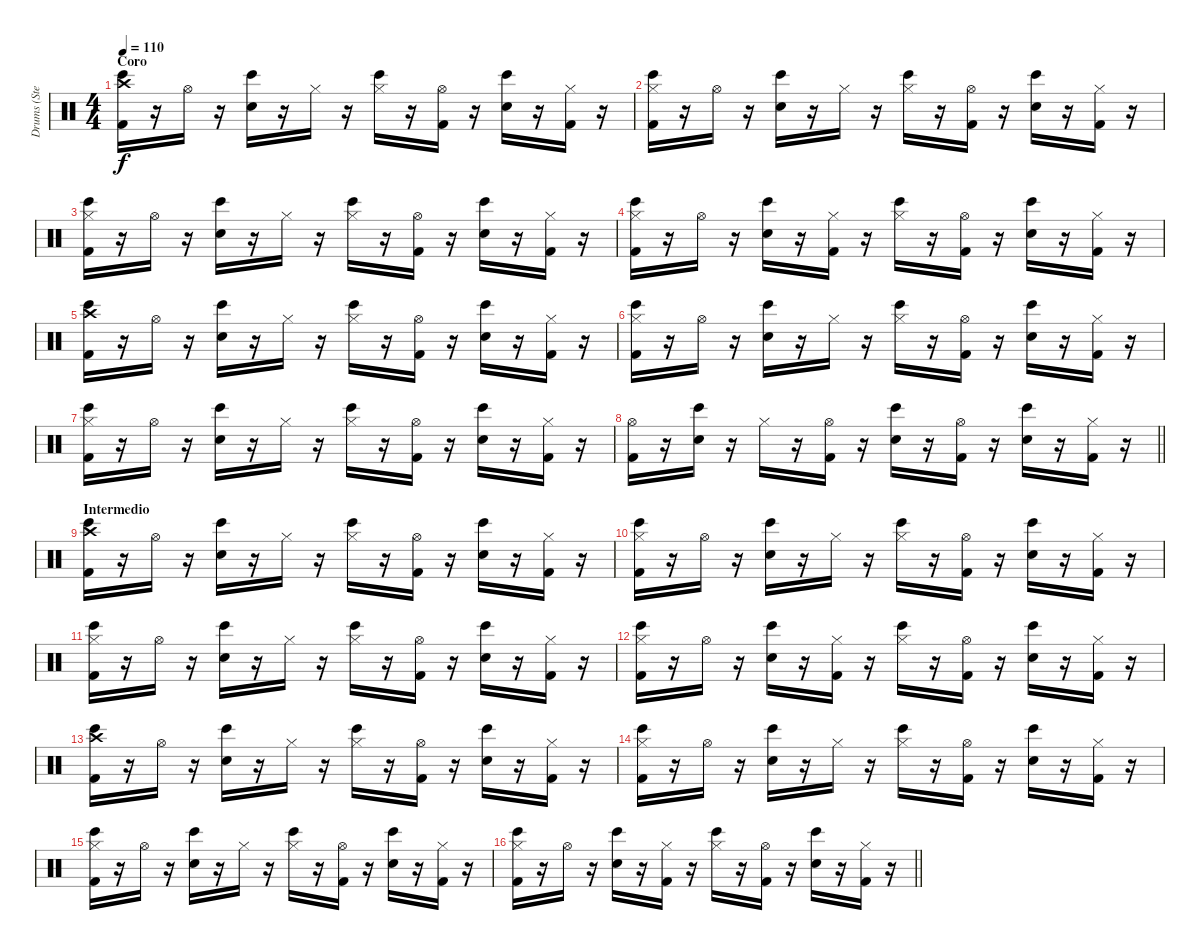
\track ("Drums (Stephen Perkins)" "Drums (Ste") {instrument percussion}
\staff {score}
\articulation defaults
\ts (4 4)
\section ("" "Coro")
\tempo 110
\clef neutral
\ks c
("Crash high (hit)" "Bongo High (hit)" "Kick (hit) 2").16{dy f} r.16 "Hi-Hat (open)".16 r.16 ("Bongo High (hit)" "Snare (hit) 2").16 r.16 "Hi-Hat (closed)".16 r.16 ("Hi-Hat (closed)" "Bongo High (hit)").16 r.16 ("Hi-Hat (open)" "Kick (hit) 2").16 r.16 ("Bongo High (hit)" "Snare (hit) 2").16 r.16 ("Hi-Hat (closed)" "Kick (hit) 2").16 r.16 |
("Hi-Hat (closed)" "Bongo High (hit)" "Kick (hit) 2").16 r.16 "Hi-Hat (open)".16 r.16 ("Bongo High (hit)" "Snare (hit) 2").16 r.16 "Hi-Hat (closed)".16 r.16 ("Hi-Hat (closed)" "Bongo High (hit)").16 r.16 ("Hi-Hat (open)" "Kick (hit) 2").16 r.16 ("Bongo High (hit)" "Snare (hit) 2").16 r.16 ("Hi-Hat (closed)" "Kick (hit) 2").16 r.16 |
("Hi-Hat (closed)" "Bongo High (hit)" "Kick (hit) 2").16 r.16 "Hi-Hat (open)".16 r.16 ("Bongo High (hit)" "Snare (hit) 2").16 r.16 "Hi-Hat (closed)".16 r.16 ("Hi-Hat (closed)" "Bongo High (hit)").16 r.16 ("Hi-Hat (open)" "Kick (hit) 2").16 r.16 ("Bongo High (hit)" "Snare (hit) 2").16 r.16 ("Hi-Hat (closed)" "Kick (hit) 2").16 r.16 |
("Hi-Hat (closed)" "Bongo High (hit)" "Kick (hit) 2").16 r.16 "Hi-Hat (open)".16 r.16 ("Bongo High (hit)" "Snare (hit) 2").16 r.16 ("Hi-Hat (closed)" "Kick (hit) 2").16 r.16 ("Hi-Hat (closed)" "Bongo High (hit)").16 r.16 ("Hi-Hat (open)" "Kick (hit) 2").16 r.16 ("Bongo High (hit)" "Snare (hit) 2").16 r.16 ("Hi-Hat (closed)" "Kick (hit) 2").16 r.16 |
("Crash high (hit)" "Bongo High (hit)" "Kick (hit) 2").16 r.16 "Hi-Hat (open)".16 r.16 ("Bongo High (hit)" "Snare (hit) 2").16 r.16 "Hi-Hat (closed)".16 r.16 ("Hi-Hat (closed)" "Bongo High (hit)").16 r.16 ("Hi-Hat (open)" "Kick (hit) 2").16 r.16 ("Bongo High (hit)" "Snare (hit) 2").16 r.16 ("Hi-Hat (closed)" "Kick (hit) 2").16 r.16 |
("Hi-Hat (closed)" "Bongo High (hit)" "Kick (hit) 2").16 r.16 "Hi-Hat (open)".16 r.16 ("Bongo High (hit)" "Snare (hit) 2").16 r.16 "Hi-Hat (closed)".16 r.16 ("Hi-Hat (closed)" "Bongo High (hit)").16 r.16 ("Hi-Hat (open)" "Kick (hit) 2").16 r.16 ("Bongo High (hit)" "Snare (hit) 2").16 r.16 ("Hi-Hat (closed)" "Kick (hit) 2").16 r.16 |
("Hi-Hat (closed)" "Bongo High (hit)" "Kick (hit) 2").16 r.16 "Hi-Hat (open)".16 r.16 ("Bongo High (hit)" "Snare (hit) 2").16 r.16 "Hi-Hat (closed)".16 r.16 ("Hi-Hat (closed)" "Bongo High (hit)").16 r.16 ("Hi-Hat (open)" "Kick (hit) 2").16 r.16 ("Bongo High (hit)" "Snare (hit) 2").16 r.16 ("Hi-Hat (closed)" "Kick (hit) 2").16 r.16 |
\barLineRight lightlight
("Hi-Hat (open)" "Kick (hit) 2").16 r.16 ("Bongo High (hit)" "Snare (hit) 2").16 r.16 "Hi-Hat (closed)".16 r.16 ("Hi-Hat (open)" "Kick (hit) 2").16 r.16 ("Bongo High (hit)" "Snare (hit) 2").16 r.16 ("Hi-Hat (open)" "Kick (hit) 2").16 r.16 ("Bongo High (hit)" "Snare (hit) 2").16 r.16 ("Hi-Hat (closed)" "Kick (hit) 2").16 r.16 |
\section ("" "Intermedio")
("Crash high (hit)" "Bongo High (hit)" "Kick (hit) 2").16 r.16 "Hi-Hat (open)".16 r.16 ("Bongo High (hit)" "Snare (hit) 2").16 r.16 "Hi-Hat (closed)".16 r.16 ("Hi-Hat (closed)" "Bongo High (hit)").16 r.16 ("Hi-Hat (open)" "Kick (hit) 2").16 r.16 ("Bongo High (hit)" "Snare (hit) 2").16 r.16 ("Hi-Hat (closed)" "Kick (hit) 2").16 r.16 |
("Hi-Hat (closed)" "Bongo High (hit)" "Kick (hit) 2").16 r.16 "Hi-Hat (open)".16 r.16 ("Bongo High (hit)" "Snare (hit) 2").16 r.16 "Hi-Hat (closed)".16 r.16 ("Hi-Hat (closed)" "Bongo High (hit)").16 r.16 ("Hi-Hat (open)" "Kick (hit) 2").16 r.16 ("Bongo High (hit)" "Snare (hit) 2").16 r.16 ("Hi-Hat (closed)" "Kick (hit) 2").16 r.16 |
("Hi-Hat (closed)" "Bongo High (hit)" "Kick (hit) 2").16 r.16 "Hi-Hat (open)".16 r.16 ("Bongo High (hit)" "Snare (hit) 2").16 r.16 "Hi-Hat (closed)".16 r.16 ("Hi-Hat (closed)" "Bongo High (hit)").16 r.16 ("Hi-Hat (open)" "Kick (hit) 2").16 r.16 ("Bongo High (hit)" "Snare (hit) 2").16 r.16 ("Hi-Hat (closed)" "Kick (hit) 2").16 r.16 |
("Hi-Hat (closed)" "Bongo High (hit)" "Kick (hit) 2").16 r.16 "Hi-Hat (open)".16 r.16 ("Bongo High (hit)" "Snare (hit) 2").16 r.16 ("Hi-Hat (closed)" "Kick (hit) 2").16 r.16 ("Hi-Hat (closed)" "Bongo High (hit)").16 r.16 ("Hi-Hat (open)" "Kick (hit) 2").16 r.16 ("Bongo High (hit)" "Snare (hit) 2").16 r.16 ("Hi-Hat (closed)" "Kick (hit) 2").16 r.16 |
("Crash high (hit)" "Bongo High (hit)" "Kick (hit) 2").16 r.16 "Hi-Hat (open)".16 r.16 ("Bongo High (hit)" "Snare (hit) 2").16 r.16 "Hi-Hat (closed)".16 r.16 ("Hi-Hat (closed)" "Bongo High (hit)").16 r.16 ("Hi-Hat (open)" "Kick (hit) 2").16 r.16 ("Bongo High (hit)" "Snare (hit) 2").16 r.16 ("Hi-Hat (closed)" "Kick (hit) 2").16 r.16 |
("Hi-Hat (closed)" "Bongo High (hit)" "Kick (hit) 2").16 r.16 "Hi-Hat (open)".16 r.16 ("Bongo High (hit)" "Snare (hit) 2").16 r.16 "Hi-Hat (closed)".16 r.16 ("Hi-Hat (closed)" "Bongo High (hit)").16 r.16 ("Hi-Hat (open)" "Kick (hit) 2").16 r.16 ("Bongo High (hit)" "Snare (hit) 2").16 r.16 ("Hi-Hat (closed)" "Kick (hit) 2").16 r.16 |
("Hi-Hat (closed)" "Bongo High (hit)" "Kick (hit) 2").16 r.16 "Hi-Hat (open)".16 r.16 ("Bongo High (hit)" "Snare (hit) 2").16 r.16 "Hi-Hat (closed)".16 r.16 ("Hi-Hat (closed)" "Bongo High (hit)").16 r.16 ("Hi-Hat (open)" "Kick (hit) 2").16 r.16 ("Bongo High (hit)" "Snare (hit) 2").16 r.16 ("Hi-Hat (closed)" "Kick (hit) 2").16 r.16 |
\barLineRight lightlight
("Hi-Hat (closed)" "Bongo High (hit)" "Kick (hit) 2").16 r.16 "Hi-Hat (open)".16 r.16 ("Bongo High (hit)" "Snare (hit) 2").16 r.16 ("Hi-Hat (closed)" "Kick (hit) 2").16 r.16 ("Hi-Hat (closed)" "Bongo High (hit)").16 r.16 ("Hi-Hat (open)" "Kick (hit) 2").16 r.16 ("Bongo High (hit)" "Snare (hit) 2").16 r.16 ("Hi-Hat (closed)" "Kick (hit) 2").16 r.16
